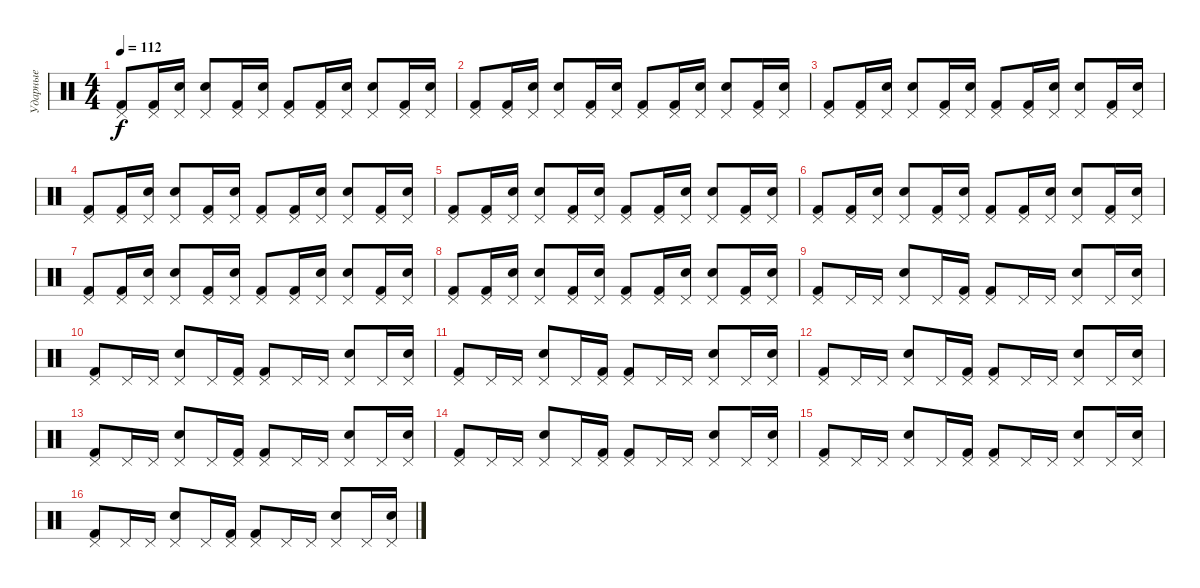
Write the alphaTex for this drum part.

\track ("Ударные" "Ударные") {instrument percussion}
\staff {score}
\articulation defaults
\ts (4 4)
\tempo 112
\clef neutral
\ks c
("Kick (hit) 2" "Pedal Hi-Hat (hit)").8{dy f} ("Kick (hit) 2" "Pedal Hi-Hat (hit)").16 ("Snare (hit) 2" "Pedal Hi-Hat (hit)").16 ("Snare (hit) 2" "Pedal Hi-Hat (hit)").8 ("Kick (hit) 2" "Pedal Hi-Hat (hit)").16 ("Snare (hit) 2" "Pedal Hi-Hat (hit)").16 ("Kick (hit) 2" "Pedal Hi-Hat (hit)").8 ("Kick (hit) 2" "Pedal Hi-Hat (hit)").16 ("Snare (hit) 2" "Pedal Hi-Hat (hit)").16 ("Snare (hit) 2" "Pedal Hi-Hat (hit)").8 ("Kick (hit) 2" "Pedal Hi-Hat (hit)").16 ("Snare (hit) 2" "Pedal Hi-Hat (hit)").16 |
("Kick (hit) 2" "Pedal Hi-Hat (hit)").8 ("Kick (hit) 2" "Pedal Hi-Hat (hit)").16 ("Snare (hit) 2" "Pedal Hi-Hat (hit)").16 ("Snare (hit) 2" "Pedal Hi-Hat (hit)").8 ("Kick (hit) 2" "Pedal Hi-Hat (hit)").16 ("Snare (hit) 2" "Pedal Hi-Hat (hit)").16 ("Kick (hit) 2" "Pedal Hi-Hat (hit)").8 ("Kick (hit) 2" "Pedal Hi-Hat (hit)").16 ("Snare (hit) 2" "Pedal Hi-Hat (hit)").16 ("Snare (hit) 2" "Pedal Hi-Hat (hit)").8 ("Kick (hit) 2" "Pedal Hi-Hat (hit)").16 ("Snare (hit) 2" "Pedal Hi-Hat (hit)").16 |
("Kick (hit) 2" "Pedal Hi-Hat (hit)").8 ("Kick (hit) 2" "Pedal Hi-Hat (hit)").16 ("Snare (hit) 2" "Pedal Hi-Hat (hit)").16 ("Snare (hit) 2" "Pedal Hi-Hat (hit)").8 ("Kick (hit) 2" "Pedal Hi-Hat (hit)").16 ("Snare (hit) 2" "Pedal Hi-Hat (hit)").16 ("Kick (hit) 2" "Pedal Hi-Hat (hit)").8 ("Kick (hit) 2" "Pedal Hi-Hat (hit)").16 ("Snare (hit) 2" "Pedal Hi-Hat (hit)").16 ("Snare (hit) 2" "Pedal Hi-Hat (hit)").8 ("Kick (hit) 2" "Pedal Hi-Hat (hit)").16 ("Snare (hit) 2" "Pedal Hi-Hat (hit)").16 |
("Kick (hit) 2" "Pedal Hi-Hat (hit)").8 ("Kick (hit) 2" "Pedal Hi-Hat (hit)").16 ("Snare (hit) 2" "Pedal Hi-Hat (hit)").16 ("Snare (hit) 2" "Pedal Hi-Hat (hit)").8 ("Kick (hit) 2" "Pedal Hi-Hat (hit)").16 ("Snare (hit) 2" "Pedal Hi-Hat (hit)").16 ("Kick (hit) 2" "Pedal Hi-Hat (hit)").8 ("Kick (hit) 2" "Pedal Hi-Hat (hit)").16 ("Snare (hit) 2" "Pedal Hi-Hat (hit)").16 ("Snare (hit) 2" "Pedal Hi-Hat (hit)").8 ("Kick (hit) 2" "Pedal Hi-Hat (hit)").16 ("Snare (hit) 2" "Pedal Hi-Hat (hit)").16 |
("Kick (hit) 2" "Pedal Hi-Hat (hit)").8 ("Kick (hit) 2" "Pedal Hi-Hat (hit)").16 ("Snare (hit) 2" "Pedal Hi-Hat (hit)").16 ("Snare (hit) 2" "Pedal Hi-Hat (hit)").8 ("Kick (hit) 2" "Pedal Hi-Hat (hit)").16 ("Snare (hit) 2" "Pedal Hi-Hat (hit)").16 ("Kick (hit) 2" "Pedal Hi-Hat (hit)").8 ("Kick (hit) 2" "Pedal Hi-Hat (hit)").16 ("Snare (hit) 2" "Pedal Hi-Hat (hit)").16 ("Snare (hit) 2" "Pedal Hi-Hat (hit)").8 ("Kick (hit) 2" "Pedal Hi-Hat (hit)").16 ("Snare (hit) 2" "Pedal Hi-Hat (hit)").16 |
("Kick (hit) 2" "Pedal Hi-Hat (hit)").8 ("Kick (hit) 2" "Pedal Hi-Hat (hit)").16 ("Snare (hit) 2" "Pedal Hi-Hat (hit)").16 ("Snare (hit) 2" "Pedal Hi-Hat (hit)").8 ("Kick (hit) 2" "Pedal Hi-Hat (hit)").16 ("Snare (hit) 2" "Pedal Hi-Hat (hit)").16 ("Kick (hit) 2" "Pedal Hi-Hat (hit)").8 ("Kick (hit) 2" "Pedal Hi-Hat (hit)").16 ("Snare (hit) 2" "Pedal Hi-Hat (hit)").16 ("Snare (hit) 2" "Pedal Hi-Hat (hit)").8 ("Kick (hit) 2" "Pedal Hi-Hat (hit)").16 ("Snare (hit) 2" "Pedal Hi-Hat (hit)").16 |
("Kick (hit) 2" "Pedal Hi-Hat (hit)").8 ("Kick (hit) 2" "Pedal Hi-Hat (hit)").16 ("Snare (hit) 2" "Pedal Hi-Hat (hit)").16 ("Snare (hit) 2" "Pedal Hi-Hat (hit)").8 ("Kick (hit) 2" "Pedal Hi-Hat (hit)").16 ("Snare (hit) 2" "Pedal Hi-Hat (hit)").16 ("Kick (hit) 2" "Pedal Hi-Hat (hit)").8 ("Kick (hit) 2" "Pedal Hi-Hat (hit)").16 ("Snare (hit) 2" "Pedal Hi-Hat (hit)").16 ("Snare (hit) 2" "Pedal Hi-Hat (hit)").8 ("Kick (hit) 2" "Pedal Hi-Hat (hit)").16 ("Snare (hit) 2" "Pedal Hi-Hat (hit)").16 |
("Kick (hit) 2" "Pedal Hi-Hat (hit)").8 ("Kick (hit) 2" "Pedal Hi-Hat (hit)").16 ("Snare (hit) 2" "Pedal Hi-Hat (hit)").16 ("Snare (hit) 2" "Pedal Hi-Hat (hit)").8 ("Kick (hit) 2" "Pedal Hi-Hat (hit)").16 ("Snare (hit) 2" "Pedal Hi-Hat (hit)").16 ("Kick (hit) 2" "Pedal Hi-Hat (hit)").8 ("Kick (hit) 2" "Pedal Hi-Hat (hit)").16 ("Snare (hit) 2" "Pedal Hi-Hat (hit)").16 ("Snare (hit) 2" "Pedal Hi-Hat (hit)").8 ("Kick (hit) 2" "Pedal Hi-Hat (hit)").16 ("Snare (hit) 2" "Pedal Hi-Hat (hit)").16 |
("Kick (hit) 2" "Pedal Hi-Hat (hit)").8 "Pedal Hi-Hat (hit)".16 "Pedal Hi-Hat (hit)".16 ("Pedal Hi-Hat (hit)" "Snare (hit) 2").8 "Pedal Hi-Hat (hit)".16 ("Pedal Hi-Hat (hit)" "Kick (hit) 2").16 ("Kick (hit) 2" "Pedal Hi-Hat (hit)").8 "Pedal Hi-Hat (hit)".16 "Pedal Hi-Hat (hit)".16 ("Snare (hit) 2" "Pedal Hi-Hat (hit)").8 "Pedal Hi-Hat (hit)".16 ("Pedal Hi-Hat (hit)" "Snare (hit) 2").16 |
("Kick (hit) 2" "Pedal Hi-Hat (hit)").8 "Pedal Hi-Hat (hit)".16 "Pedal Hi-Hat (hit)".16 ("Pedal Hi-Hat (hit)" "Snare (hit) 2").8 "Pedal Hi-Hat (hit)".16 ("Pedal Hi-Hat (hit)" "Kick (hit) 2").16 ("Kick (hit) 2" "Pedal Hi-Hat (hit)").8 "Pedal Hi-Hat (hit)".16 "Pedal Hi-Hat (hit)".16 ("Snare (hit) 2" "Pedal Hi-Hat (hit)").8 "Pedal Hi-Hat (hit)".16 ("Pedal Hi-Hat (hit)" "Snare (hit) 2").16 |
("Kick (hit) 2" "Pedal Hi-Hat (hit)").8 "Pedal Hi-Hat (hit)".16 "Pedal Hi-Hat (hit)".16 ("Pedal Hi-Hat (hit)" "Snare (hit) 2").8 "Pedal Hi-Hat (hit)".16 ("Pedal Hi-Hat (hit)" "Kick (hit) 2").16 ("Kick (hit) 2" "Pedal Hi-Hat (hit)").8 "Pedal Hi-Hat (hit)".16 "Pedal Hi-Hat (hit)".16 ("Snare (hit) 2" "Pedal Hi-Hat (hit)").8 "Pedal Hi-Hat (hit)".16 ("Pedal Hi-Hat (hit)" "Snare (hit) 2").16 |
("Kick (hit) 2" "Pedal Hi-Hat (hit)").8 "Pedal Hi-Hat (hit)".16 "Pedal Hi-Hat (hit)".16 ("Pedal Hi-Hat (hit)" "Snare (hit) 2").8 "Pedal Hi-Hat (hit)".16 ("Pedal Hi-Hat (hit)" "Kick (hit) 2").16 ("Kick (hit) 2" "Pedal Hi-Hat (hit)").8 "Pedal Hi-Hat (hit)".16 "Pedal Hi-Hat (hit)".16 ("Snare (hit) 2" "Pedal Hi-Hat (hit)").8 "Pedal Hi-Hat (hit)".16 ("Pedal Hi-Hat (hit)" "Snare (hit) 2").16 |
("Kick (hit) 2" "Pedal Hi-Hat (hit)").8 "Pedal Hi-Hat (hit)".16 "Pedal Hi-Hat (hit)".16 ("Pedal Hi-Hat (hit)" "Snare (hit) 2").8 "Pedal Hi-Hat (hit)".16 ("Pedal Hi-Hat (hit)" "Kick (hit) 2").16 ("Kick (hit) 2" "Pedal Hi-Hat (hit)").8 "Pedal Hi-Hat (hit)".16 "Pedal Hi-Hat (hit)".16 ("Snare (hit) 2" "Pedal Hi-Hat (hit)").8 "Pedal Hi-Hat (hit)".16 ("Pedal Hi-Hat (hit)" "Snare (hit) 2").16 |
("Kick (hit) 2" "Pedal Hi-Hat (hit)").8 "Pedal Hi-Hat (hit)".16 "Pedal Hi-Hat (hit)".16 ("Pedal Hi-Hat (hit)" "Snare (hit) 2").8 "Pedal Hi-Hat (hit)".16 ("Pedal Hi-Hat (hit)" "Kick (hit) 2").16 ("Kick (hit) 2" "Pedal Hi-Hat (hit)").8 "Pedal Hi-Hat (hit)".16 "Pedal Hi-Hat (hit)".16 ("Snare (hit) 2" "Pedal Hi-Hat (hit)").8 "Pedal Hi-Hat (hit)".16 ("Pedal Hi-Hat (hit)" "Snare (hit) 2").16 |
("Kick (hit) 2" "Pedal Hi-Hat (hit)").8 "Pedal Hi-Hat (hit)".16 "Pedal Hi-Hat (hit)".16 ("Pedal Hi-Hat (hit)" "Snare (hit) 2").8 "Pedal Hi-Hat (hit)".16 ("Pedal Hi-Hat (hit)" "Kick (hit) 2").16 ("Kick (hit) 2" "Pedal Hi-Hat (hit)").8 "Pedal Hi-Hat (hit)".16 "Pedal Hi-Hat (hit)".16 ("Snare (hit) 2" "Pedal Hi-Hat (hit)").8 "Pedal Hi-Hat (hit)".16 ("Pedal Hi-Hat (hit)" "Snare (hit) 2").16 |
("Kick (hit) 2" "Pedal Hi-Hat (hit)").8 "Pedal Hi-Hat (hit)".16 "Pedal Hi-Hat (hit)".16 ("Pedal Hi-Hat (hit)" "Snare (hit) 2").8 "Pedal Hi-Hat (hit)".16 ("Pedal Hi-Hat (hit)" "Kick (hit) 2").16 ("Kick (hit) 2" "Pedal Hi-Hat (hit)").8 "Pedal Hi-Hat (hit)".16 "Pedal Hi-Hat (hit)".16 ("Snare (hit) 2" "Pedal Hi-Hat (hit)").8 "Pedal Hi-Hat (hit)".16 ("Pedal Hi-Hat (hit)" "Snare (hit) 2").16
